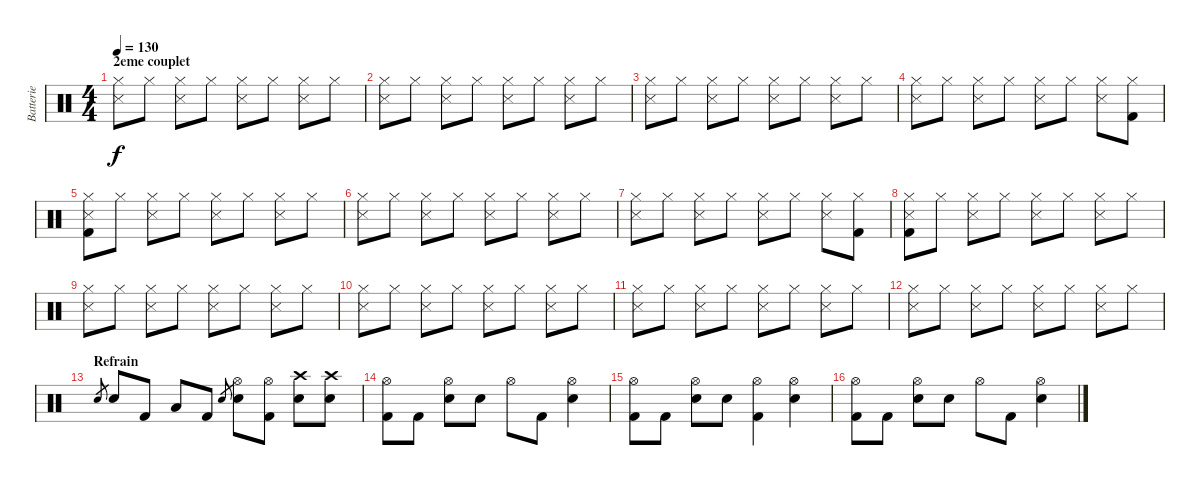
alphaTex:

\track ("Batterie" "Batterie") {instrument percussion}
\staff {score}
\articulation defaults
\ts (4 4)
\section ("" "2eme couplet")
\tempo 130
\clef neutral
\ks c
("Hi-Hat (closed)" "Snare (side stick) 3").8{dy f} "Hi-Hat (closed)".8 ("Hi-Hat (closed)" "Snare (side stick) 3").8 "Hi-Hat (closed)".8 ("Hi-Hat (closed)" "Snare (side stick) 3").8 "Hi-Hat (closed)".8 ("Hi-Hat (closed)" "Snare (side stick) 3").8 "Hi-Hat (closed)".8 |
("Hi-Hat (closed)" "Snare (side stick) 3").8 "Hi-Hat (closed)".8 ("Hi-Hat (closed)" "Snare (side stick) 3").8 "Hi-Hat (closed)".8 ("Hi-Hat (closed)" "Snare (side stick) 3").8 "Hi-Hat (closed)".8 ("Hi-Hat (closed)" "Snare (side stick) 3").8 "Hi-Hat (closed)".8 |
("Hi-Hat (closed)" "Snare (side stick) 3").8 "Hi-Hat (closed)".8 ("Hi-Hat (closed)" "Snare (side stick) 3").8 "Hi-Hat (closed)".8 ("Hi-Hat (closed)" "Snare (side stick) 3").8 "Hi-Hat (closed)".8 ("Hi-Hat (closed)" "Snare (side stick) 3").8 "Hi-Hat (closed)".8 |
("Hi-Hat (closed)" "Snare (side stick) 3").8 "Hi-Hat (closed)".8 ("Hi-Hat (closed)" "Snare (side stick) 3").8 "Hi-Hat (closed)".8 ("Hi-Hat (closed)" "Snare (side stick) 3").8 "Hi-Hat (closed)".8 ("Hi-Hat (closed)" "Snare (side stick) 3").8 ("Hi-Hat (closed)" "Kick (hit) 2").8 |
("Hi-Hat (closed)" "Snare (side stick) 3" "Kick (hit) 2").8 "Hi-Hat (closed)".8 ("Hi-Hat (closed)" "Snare (side stick) 3").8 "Hi-Hat (closed)".8 ("Hi-Hat (closed)" "Snare (side stick) 3").8 "Hi-Hat (closed)".8 ("Hi-Hat (closed)" "Snare (side stick) 3").8 "Hi-Hat (closed)".8 |
("Hi-Hat (closed)" "Snare (side stick) 3").8 "Hi-Hat (closed)".8 ("Hi-Hat (closed)" "Snare (side stick) 3").8 "Hi-Hat (closed)".8 ("Hi-Hat (closed)" "Snare (side stick) 3").8 "Hi-Hat (closed)".8 ("Hi-Hat (closed)" "Snare (side stick) 3").8 "Hi-Hat (closed)".8 |
("Hi-Hat (closed)" "Snare (side stick) 3").8 "Hi-Hat (closed)".8 ("Hi-Hat (closed)" "Snare (side stick) 3").8 "Hi-Hat (closed)".8 ("Hi-Hat (closed)" "Snare (side stick) 3").8 "Hi-Hat (closed)".8 ("Hi-Hat (closed)" "Snare (side stick) 3").8 ("Hi-Hat (closed)" "Kick (hit) 2").8 |
("Hi-Hat (closed)" "Snare (side stick) 3" "Kick (hit) 2").8 "Hi-Hat (closed)".8 ("Hi-Hat (closed)" "Snare (side stick) 3").8 "Hi-Hat (closed)".8 ("Hi-Hat (closed)" "Snare (side stick) 3").8 "Hi-Hat (closed)".8 ("Hi-Hat (closed)" "Snare (side stick) 3").8 "Hi-Hat (closed)".8 |
("Hi-Hat (closed)" "Snare (side stick) 3").8 "Hi-Hat (closed)".8 ("Hi-Hat (closed)" "Snare (side stick) 3").8 "Hi-Hat (closed)".8 ("Hi-Hat (closed)" "Snare (side stick) 3").8 "Hi-Hat (closed)".8 ("Hi-Hat (closed)" "Snare (side stick) 3").8 "Hi-Hat (closed)".8 |
("Hi-Hat (closed)" "Snare (side stick) 3").8 "Hi-Hat (closed)".8 ("Hi-Hat (closed)" "Snare (side stick) 3").8 "Hi-Hat (closed)".8 ("Hi-Hat (closed)" "Snare (side stick) 3").8 "Hi-Hat (closed)".8 ("Hi-Hat (closed)" "Snare (side stick) 3").8 "Hi-Hat (closed)".8 |
("Hi-Hat (closed)" "Snare (side stick) 3").8 "Hi-Hat (closed)".8 ("Hi-Hat (closed)" "Snare (side stick) 3").8 "Hi-Hat (closed)".8 ("Hi-Hat (closed)" "Snare (side stick) 3").8 "Hi-Hat (closed)".8 ("Hi-Hat (closed)" "Snare (side stick) 3").8 "Hi-Hat (closed)".8 |
("Hi-Hat (closed)" "Snare (side stick) 3").8 "Hi-Hat (closed)".8 ("Hi-Hat (closed)" "Snare (side stick) 3").8 "Hi-Hat (closed)".8 ("Hi-Hat (closed)" "Snare (side stick) 3").8 "Hi-Hat (closed)".8 ("Hi-Hat (closed)" "Snare (side stick) 3").8 "Hi-Hat (closed)".8 |
\section ("" "Refrain")
"Snare (hit) 2".8{gr} "Snare (hit) 2".8 "Kick (hit) 2".8 "Low Tom (hit)".8 "Kick (hit) 2".8 "Snare (hit) 2".8{gr} ("Hi-Hat (open)" "Snare (hit) 2").8 ("Hi-Hat (open)" "Kick (hit) 2").8 ("Crash high (hit)" "Snare (hit) 2").8 ("Crash high (hit)" "Snare (hit) 2").8 |
("Hi-Hat (open)" "Kick (hit) 2").8 "Kick (hit) 2".8 ("Hi-Hat (open)" "Snare (hit) 2").8 "Snare (hit) 2".8 "Hi-Hat (open)".8 "Kick (hit) 2".8 ("Hi-Hat (open)" "Snare (hit) 2").4 |
("Hi-Hat (open)" "Kick (hit) 2").8 "Kick (hit) 2".8 ("Hi-Hat (open)" "Snare (hit) 2").8 "Snare (hit) 2".8 ("Hi-Hat (open)" "Kick (hit) 2").4 ("Hi-Hat (open)" "Snare (hit) 2").4 |
("Hi-Hat (open)" "Kick (hit) 2").8 "Kick (hit) 2".8 ("Hi-Hat (open)" "Snare (hit) 2").8 "Snare (hit) 2".8 "Hi-Hat (open)".8 "Kick (hit) 2".8 ("Hi-Hat (open)" "Snare (hit) 2").4
